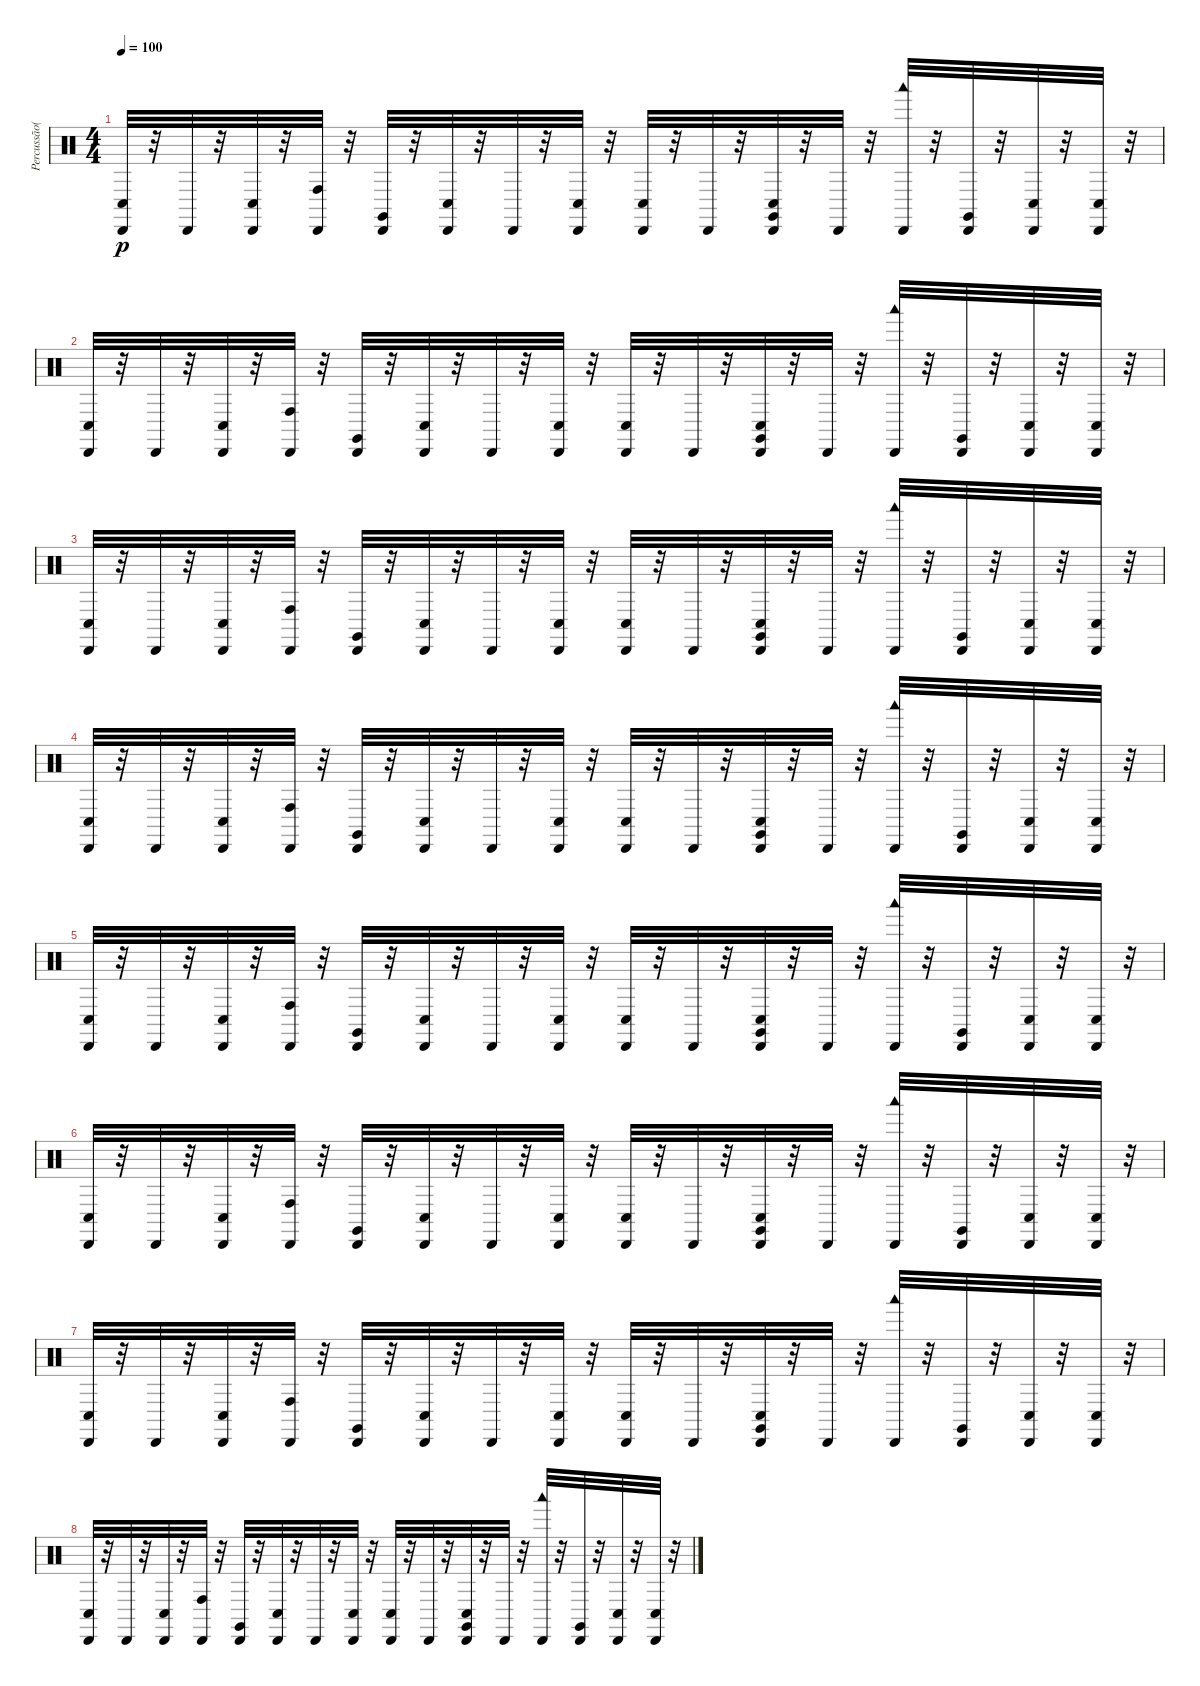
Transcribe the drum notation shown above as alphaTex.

\track ("Percussão(Percussion)" "Percussão(") {instrument percussion}
\staff {score}
\articulation defaults
\ts (4 4)
\tempo 100
\clef neutral
\ks c
("Cabasa (hit)" "Conga low (hit)").32{dy p} r.32 "Cabasa (hit)".32 r.32 ("Cabasa (hit)" "Conga low (hit)").32 r.32 ("Cabasa (hit)" "Conga high (hit)").32 r.32 ("Cabasa (hit)" "Claves (hit)").32 r.32 ("Cabasa (hit)" "Conga low (hit)").32 r.32 "Cabasa (hit)".32 r.32 ("Cabasa (hit)" "Conga low (hit)").32 r.32 ("Cabasa (hit)" "Conga low (hit)").32 r.32 "Cabasa (hit)".32 r.32 ("Cabasa (hit)" "Claves (hit)" "Conga low (hit)").32 r.32 "Cabasa (hit)".32 r.32 ("Cabasa (hit)" "Woodblock low (hit)").32 r.32 ("Cabasa (hit)" "Claves (hit)").32 r.32 ("Cabasa (hit)" "Conga low (hit)").32 r.32 ("Cabasa (hit)" "Conga low (hit)").32 r.32 |
("Cabasa (hit)" "Conga low (hit)").32 r.32 "Cabasa (hit)".32 r.32 ("Cabasa (hit)" "Conga low (hit)").32 r.32 ("Cabasa (hit)" "Conga high (hit)").32 r.32 ("Cabasa (hit)" "Claves (hit)").32 r.32 ("Cabasa (hit)" "Conga low (hit)").32 r.32 "Cabasa (hit)".32 r.32 ("Cabasa (hit)" "Conga low (hit)").32 r.32 ("Cabasa (hit)" "Conga low (hit)").32 r.32 "Cabasa (hit)".32 r.32 ("Cabasa (hit)" "Claves (hit)" "Conga low (hit)").32 r.32 "Cabasa (hit)".32 r.32 ("Cabasa (hit)" "Woodblock low (hit)").32 r.32 ("Cabasa (hit)" "Claves (hit)").32 r.32 ("Cabasa (hit)" "Conga low (hit)").32 r.32 ("Cabasa (hit)" "Conga low (hit)").32 r.32 |
("Cabasa (hit)" "Conga low (hit)").32 r.32 "Cabasa (hit)".32 r.32 ("Cabasa (hit)" "Conga low (hit)").32 r.32 ("Cabasa (hit)" "Conga high (hit)").32 r.32 ("Cabasa (hit)" "Claves (hit)").32 r.32 ("Cabasa (hit)" "Conga low (hit)").32 r.32 "Cabasa (hit)".32 r.32 ("Cabasa (hit)" "Conga low (hit)").32 r.32 ("Cabasa (hit)" "Conga low (hit)").32 r.32 "Cabasa (hit)".32 r.32 ("Cabasa (hit)" "Claves (hit)" "Conga low (hit)").32 r.32 "Cabasa (hit)".32 r.32 ("Cabasa (hit)" "Woodblock low (hit)").32 r.32 ("Cabasa (hit)" "Claves (hit)").32 r.32 ("Cabasa (hit)" "Conga low (hit)").32 r.32 ("Cabasa (hit)" "Conga low (hit)").32 r.32 |
("Cabasa (hit)" "Conga low (hit)").32 r.32 "Cabasa (hit)".32 r.32 ("Cabasa (hit)" "Conga low (hit)").32 r.32 ("Cabasa (hit)" "Conga high (hit)").32 r.32 ("Cabasa (hit)" "Claves (hit)").32 r.32 ("Cabasa (hit)" "Conga low (hit)").32 r.32 "Cabasa (hit)".32 r.32 ("Cabasa (hit)" "Conga low (hit)").32 r.32 ("Cabasa (hit)" "Conga low (hit)").32 r.32 "Cabasa (hit)".32 r.32 ("Cabasa (hit)" "Claves (hit)" "Conga low (hit)").32 r.32 "Cabasa (hit)".32 r.32 ("Cabasa (hit)" "Woodblock low (hit)").32 r.32 ("Cabasa (hit)" "Claves (hit)").32 r.32 ("Cabasa (hit)" "Conga low (hit)").32 r.32 ("Cabasa (hit)" "Conga low (hit)").32 r.32 |
("Cabasa (hit)" "Conga low (hit)").32 r.32 "Cabasa (hit)".32 r.32 ("Cabasa (hit)" "Conga low (hit)").32 r.32 ("Cabasa (hit)" "Conga high (hit)").32 r.32 ("Cabasa (hit)" "Claves (hit)").32 r.32 ("Cabasa (hit)" "Conga low (hit)").32 r.32 "Cabasa (hit)".32 r.32 ("Cabasa (hit)" "Conga low (hit)").32 r.32 ("Cabasa (hit)" "Conga low (hit)").32 r.32 "Cabasa (hit)".32 r.32 ("Cabasa (hit)" "Claves (hit)" "Conga low (hit)").32 r.32 "Cabasa (hit)".32 r.32 ("Cabasa (hit)" "Woodblock low (hit)").32 r.32 ("Cabasa (hit)" "Claves (hit)").32 r.32 ("Cabasa (hit)" "Conga low (hit)").32 r.32 ("Cabasa (hit)" "Conga low (hit)").32 r.32 |
("Cabasa (hit)" "Conga low (hit)").32 r.32 "Cabasa (hit)".32 r.32 ("Cabasa (hit)" "Conga low (hit)").32 r.32 ("Cabasa (hit)" "Conga high (hit)").32 r.32 ("Cabasa (hit)" "Claves (hit)").32 r.32 ("Cabasa (hit)" "Conga low (hit)").32 r.32 "Cabasa (hit)".32 r.32 ("Cabasa (hit)" "Conga low (hit)").32 r.32 ("Cabasa (hit)" "Conga low (hit)").32 r.32 "Cabasa (hit)".32 r.32 ("Cabasa (hit)" "Claves (hit)" "Conga low (hit)").32 r.32 "Cabasa (hit)".32 r.32 ("Cabasa (hit)" "Woodblock low (hit)").32 r.32 ("Cabasa (hit)" "Claves (hit)").32 r.32 ("Cabasa (hit)" "Conga low (hit)").32 r.32 ("Cabasa (hit)" "Conga low (hit)").32 r.32 |
("Cabasa (hit)" "Conga low (hit)").32 r.32 "Cabasa (hit)".32 r.32 ("Cabasa (hit)" "Conga low (hit)").32 r.32 ("Cabasa (hit)" "Conga high (hit)").32 r.32 ("Cabasa (hit)" "Claves (hit)").32 r.32 ("Cabasa (hit)" "Conga low (hit)").32 r.32 "Cabasa (hit)".32 r.32 ("Cabasa (hit)" "Conga low (hit)").32 r.32 ("Cabasa (hit)" "Conga low (hit)").32 r.32 "Cabasa (hit)".32 r.32 ("Cabasa (hit)" "Claves (hit)" "Conga low (hit)").32 r.32 "Cabasa (hit)".32 r.32 ("Cabasa (hit)" "Woodblock low (hit)").32 r.32 ("Cabasa (hit)" "Claves (hit)").32 r.32 ("Cabasa (hit)" "Conga low (hit)").32 r.32 ("Cabasa (hit)" "Conga low (hit)").32 r.32 |
("Cabasa (hit)" "Conga low (hit)").32 r.32 "Cabasa (hit)".32 r.32 ("Cabasa (hit)" "Conga low (hit)").32 r.32 ("Cabasa (hit)" "Conga high (hit)").32 r.32 ("Cabasa (hit)" "Claves (hit)").32 r.32 ("Cabasa (hit)" "Conga low (hit)").32 r.32 "Cabasa (hit)".32 r.32 ("Cabasa (hit)" "Conga low (hit)").32 r.32 ("Cabasa (hit)" "Conga low (hit)").32 r.32 "Cabasa (hit)".32 r.32 ("Cabasa (hit)" "Claves (hit)" "Conga low (hit)").32 r.32 "Cabasa (hit)".32 r.32 ("Cabasa (hit)" "Woodblock low (hit)").32 r.32 ("Cabasa (hit)" "Claves (hit)").32 r.32 ("Cabasa (hit)" "Conga low (hit)").32 r.32 ("Cabasa (hit)" "Conga low (hit)").32 r.32
